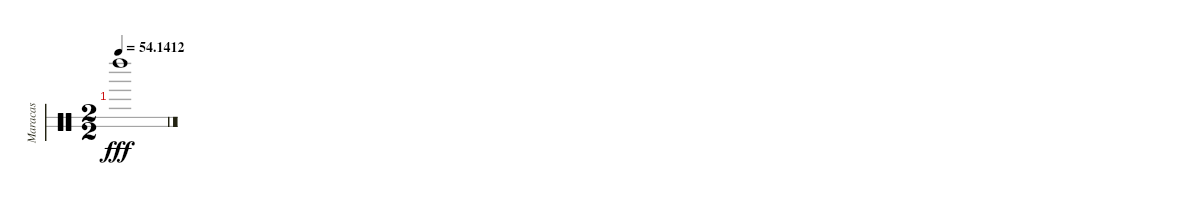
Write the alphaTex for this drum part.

\bracketExtendMode groupsimilarinstruments
\multiTrackTrackNamePolicy hidden
\otherSystemsTrackNameOrientation horizontal
\track ("Maracas" "Maracas") {instrument percussion}
\staff {score 2}
\articulation defaults
\ts (2 2)
\tempo
54.1412
\accidentals auto
\clef neutral
\ottava regular
\simile none
\ks c "Left Maraca (hit)".1{dy fff beam Down}
